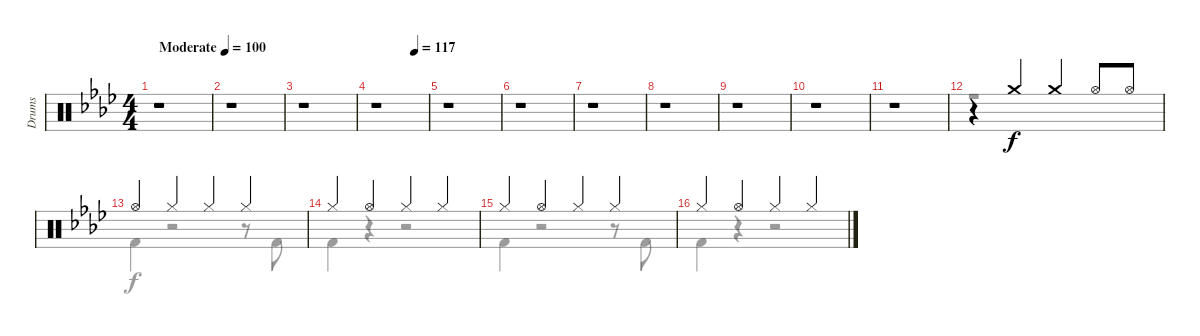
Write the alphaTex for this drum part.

\track ("Drums" "Drums") {instrument percussion}
\staff {score}
\articulation defaults
\voice
\ts (4 4)
\tempo (100 "Moderate")
\tempo 117
\tempo (100 "Moderate")
\clef neutral
\ks ab
r.1{dy f} |
r.1 |
r.1 |
\tempo (117 0.75)
r.1 |
r.1 |
r.1 |
r.1 |
r.1 |
r.1 |
r.1 |
r.1 |
r.4 "Crash medium (hit)".4 "Crash medium (hit)".4 "Hi-Hat (open)".8 "Hi-Hat (open)".8 |
"Hi-Hat (open)".4 "Hi-Hat (closed)".4 "Hi-Hat (closed)".4 "Hi-Hat (closed)".4 |
"Hi-Hat (closed)".4 "Hi-Hat (open)".4 "Hi-Hat (closed)".4 "Hi-Hat (closed)".4 |
"Hi-Hat (closed)".4 "Hi-Hat (open)".4 "Hi-Hat (closed)".4 "Hi-Hat (closed)".4 |
"Hi-Hat (closed)".4 "Hi-Hat (open)".4 "Hi-Hat (closed)".4 "Hi-Hat (closed)".4
\voice
\clef neutral
\ottava regular
\simile none
\ks ab
|
|
|
|
|
|
|
|
|
|
|
r.1 |
"Kick (hit) 2".4 r.2 r.8 "Kick (hit) 2".8 |
"Kick (hit) 2".4 r.4 r.2 |
"Kick (hit) 2".4 r.2 r.8 "Kick (hit) 2".8 |
"Kick (hit) 2".4 r.4 r.2
